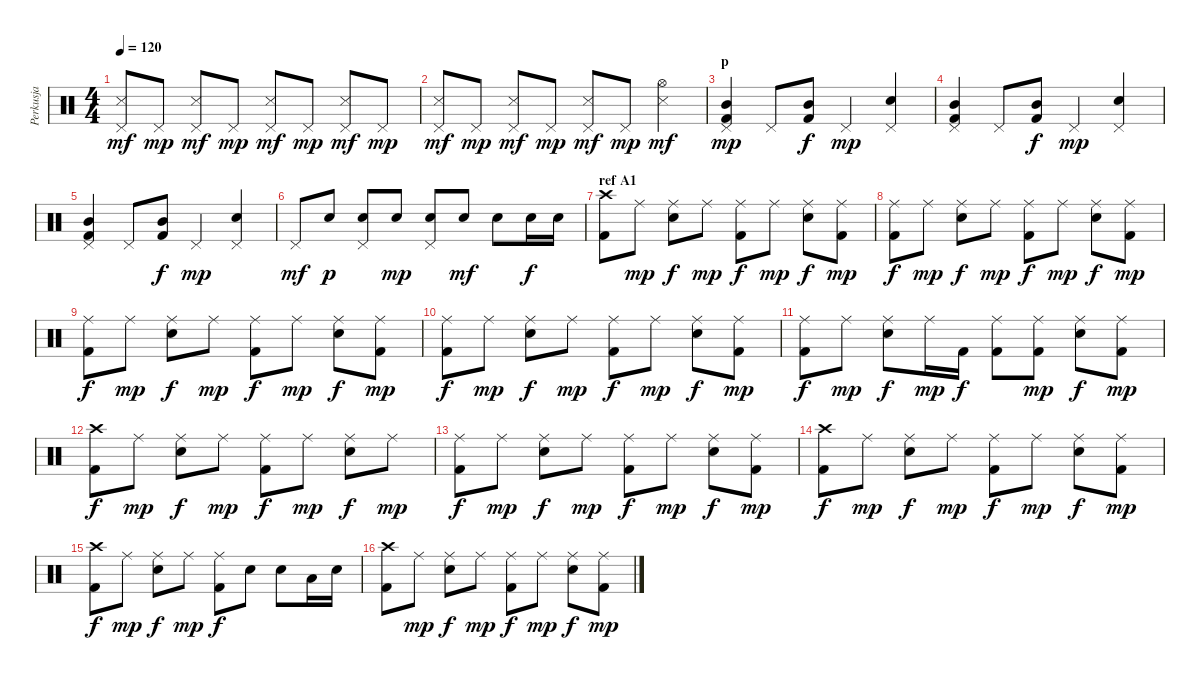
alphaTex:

\track ("Perkusja" "Perkusja") {instrument percussion}
\staff {score}
\articulation defaults
\ts (4 4)
\tempo 120
\clef neutral
\ks c
("Snare (side stick) 3" "Pedal Hi-Hat (hit)").8{dy mf} "Pedal Hi-Hat (hit)".8{dy mp} ("Snare (side stick) 3" "Pedal Hi-Hat (hit)").8{dy mf} "Pedal Hi-Hat (hit)".8{dy mp} ("Snare (side stick) 3" "Pedal Hi-Hat (hit)").8{dy mf} "Pedal Hi-Hat (hit)".8{dy mp} ("Snare (side stick) 3" "Pedal Hi-Hat (hit)").8{dy mf} "Pedal Hi-Hat (hit)".8{dy mp} |
("Snare (side stick) 3" "Pedal Hi-Hat (hit)").8{dy mf} "Pedal Hi-Hat (hit)".8{dy mp} ("Snare (side stick) 3" "Pedal Hi-Hat (hit)").8{dy mf} "Pedal Hi-Hat (hit)".8{dy mp} ("Snare (side stick) 3" "Pedal Hi-Hat (hit)").8{dy mf} "Pedal Hi-Hat (hit)".8{dy mp} ("Snare (side stick) 3" "Hi-Hat (open)").4{dy mf} |
\section ("" "p")
("Pedal Hi-Hat (hit)" "Mid Tom (hit)" "Kick (hit) 2").4{dy mp} "Pedal Hi-Hat (hit)".8 ("Mid Tom (hit)" "Kick (hit) 2").8{dy f} "Pedal Hi-Hat (hit)".4{dy mp} ("Pedal Hi-Hat (hit)" "Snare (hit) 2").4 |
("Pedal Hi-Hat (hit)" "Mid Tom (hit)" "Kick (hit) 2").4 "Pedal Hi-Hat (hit)".8 ("Mid Tom (hit)" "Kick (hit) 2").8{dy f} "Pedal Hi-Hat (hit)".4{dy mp} ("Pedal Hi-Hat (hit)" "Snare (hit) 2").4 |
("Pedal Hi-Hat (hit)" "Mid Tom (hit)" "Kick (hit) 2").4 "Pedal Hi-Hat (hit)".8 ("Mid Tom (hit)" "Kick (hit) 2").8{dy f} "Pedal Hi-Hat (hit)".4{dy mp} ("Pedal Hi-Hat (hit)" "Snare (hit) 2").4 |
"Pedal Hi-Hat (hit)".8{dy mf} "Snare (hit) 2".8{dy p} ("Pedal Hi-Hat (hit)" "Snare (hit) 2").8 "Snare (hit) 2".8{dy mp} ("Pedal Hi-Hat (hit)" "Snare (hit) 2").8 "Snare (hit) 2".8{dy mf} "Snare (hit) 2".8 "Snare (hit) 2".16{dy f} "Snare (hit) 2".16 |
\section ("" "ref A1")
("Crash high (hit)" "Kick (hit) 2").8 "Ride (middle)".8{dy mp} ("Ride (middle)" "Snare (hit) 2").8{dy f} "Ride (middle)".8{dy mp} ("Ride (middle)" "Kick (hit) 2").8{dy f} "Ride (middle)".8{dy mp} ("Ride (middle)" "Snare (hit) 2").8{dy f} ("Ride (middle)" "Kick (hit) 2").8{dy mp} |
("Ride (middle)" "Kick (hit) 2").8{dy f} "Ride (middle)".8{dy mp} ("Ride (middle)" "Snare (hit) 2").8{dy f} "Ride (middle)".8{dy mp} ("Ride (middle)" "Kick (hit) 2").8{dy f} "Ride (middle)".8{dy mp} ("Ride (middle)" "Snare (hit) 2").8{dy f} ("Ride (middle)" "Kick (hit) 2").8{dy mp} |
("Ride (middle)" "Kick (hit) 2").8{dy f} "Ride (middle)".8{dy mp} ("Ride (middle)" "Snare (hit) 2").8{dy f} "Ride (middle)".8{dy mp} ("Ride (middle)" "Kick (hit) 2").8{dy f} "Ride (middle)".8{dy mp} ("Ride (middle)" "Snare (hit) 2").8{dy f} ("Ride (middle)" "Kick (hit) 2").8{dy mp} |
("Ride (middle)" "Kick (hit) 2").8{dy f} "Ride (middle)".8{dy mp} ("Ride (middle)" "Snare (hit) 2").8{dy f} "Ride (middle)".8{dy mp} ("Ride (middle)" "Kick (hit) 2").8{dy f} "Ride (middle)".8{dy mp} ("Ride (middle)" "Snare (hit) 2").8{dy f} ("Ride (middle)" "Kick (hit) 2").8{dy mp} |
("Ride (middle)" "Kick (hit) 2").8{dy f} "Ride (middle)".8{dy mp} ("Ride (middle)" "Snare (hit) 2").8{dy f} "Ride (middle)".16{dy mp} "Kick (hit) 2".16{dy f} ("Ride (middle)" "Kick (hit) 2").8 ("Ride (middle)" "Kick (hit) 2").8{dy mp} ("Ride (middle)" "Snare (hit) 2").8{dy f} ("Ride (middle)" "Kick (hit) 2").8{dy mp} |
("Crash high (hit)" "Kick (hit) 2").8{dy f} "Ride (middle)".8{dy mp} ("Ride (middle)" "Snare (hit) 2").8{dy f} "Ride (middle)".8{dy mp} ("Ride (middle)" "Kick (hit) 2").8{dy f} "Ride (middle)".8{dy mp} ("Ride (middle)" "Snare (hit) 2").8{dy f} "Ride (middle)".8{dy mp} |
("Ride (middle)" "Kick (hit) 2").8{dy f} "Ride (middle)".8{dy mp} ("Ride (middle)" "Snare (hit) 2").8{dy f} "Ride (middle)".8{dy mp} ("Ride (middle)" "Kick (hit) 2").8{dy f} "Ride (middle)".8{dy mp} ("Ride (middle)" "Snare (hit) 2").8{dy f} ("Ride (middle)" "Kick (hit) 2").8{dy mp} |
("Crash high (hit)" "Kick (hit) 2").8{dy f} "Ride (middle)".8{dy mp} ("Ride (middle)" "Snare (hit) 2").8{dy f} "Ride (middle)".8{dy mp} ("Ride (middle)" "Kick (hit) 2").8{dy f} "Ride (middle)".8{dy mp} ("Ride (middle)" "Snare (hit) 2").8{dy f} ("Ride (middle)" "Kick (hit) 2").8{dy mp} |
("Crash high (hit)" "Kick (hit) 2").8{dy f} "Ride (middle)".8{dy mp} ("Ride (middle)" "Snare (hit) 2").8{dy f} "Ride (middle)".8{dy mp} ("Ride (middle)" "Kick (hit) 2").8{dy f} "Snare (hit) 2".8 "Snare (hit) 2".8 "Low Tom (hit)".16 "Snare (hit) 2".16 |
("Crash high (hit)" "Kick (hit) 2").8 "Ride (middle)".8{dy mp} ("Ride (middle)" "Snare (hit) 2").8{dy f} "Ride (middle)".8{dy mp} ("Ride (middle)" "Kick (hit) 2").8{dy f} "Ride (middle)".8{dy mp} ("Ride (middle)" "Snare (hit) 2").8{dy f} ("Ride (middle)" "Kick (hit) 2").8{dy mp}
